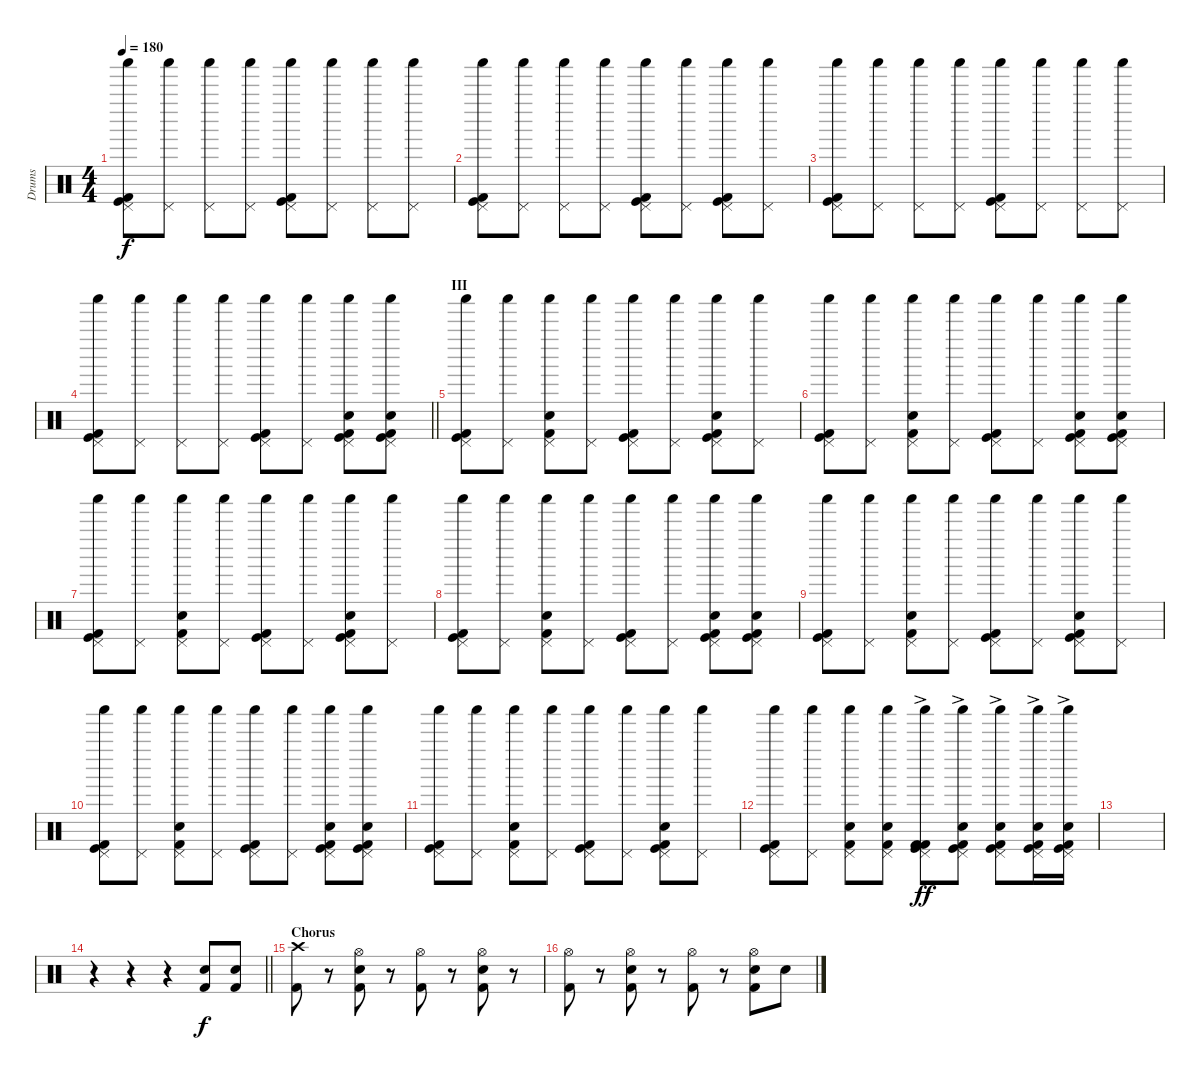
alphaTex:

\track ("Drums" "Drums") {instrument percussion}
\staff {score}
\articulation defaults
\ts (4 4)
\tempo 180
\clef neutral
\ks c
("Shaker (hit)" "Pedal Hi-Hat (hit)" "Kick (hit) 2" "Kick (hit)").8{dy f volume 11} ("Shaker (hit)" "Pedal Hi-Hat (hit)").8 ("Shaker (hit)" "Pedal Hi-Hat (hit)").8 ("Shaker (hit)" "Pedal Hi-Hat (hit)").8 ("Shaker (hit)" "Pedal Hi-Hat (hit)" "Kick (hit) 2" "Kick (hit)").8 ("Shaker (hit)" "Pedal Hi-Hat (hit)").8 ("Shaker (hit)" "Pedal Hi-Hat (hit)").8 ("Shaker (hit)" "Pedal Hi-Hat (hit)").8 |
("Shaker (hit)" "Pedal Hi-Hat (hit)" "Kick (hit) 2" "Kick (hit)").8 ("Shaker (hit)" "Pedal Hi-Hat (hit)").8 ("Shaker (hit)" "Pedal Hi-Hat (hit)").8 ("Shaker (hit)" "Pedal Hi-Hat (hit)").8 ("Shaker (hit)" "Pedal Hi-Hat (hit)" "Kick (hit) 2" "Kick (hit)").8 ("Shaker (hit)" "Pedal Hi-Hat (hit)").8 ("Shaker (hit)" "Pedal Hi-Hat (hit)" "Kick (hit) 2" "Kick (hit)").8 ("Shaker (hit)" "Pedal Hi-Hat (hit)").8 |
("Shaker (hit)" "Pedal Hi-Hat (hit)" "Kick (hit) 2" "Kick (hit)").8{volume 11} ("Shaker (hit)" "Pedal Hi-Hat (hit)").8 ("Shaker (hit)" "Pedal Hi-Hat (hit)").8 ("Shaker (hit)" "Pedal Hi-Hat (hit)").8 ("Shaker (hit)" "Pedal Hi-Hat (hit)" "Kick (hit) 2" "Kick (hit)").8 ("Shaker (hit)" "Pedal Hi-Hat (hit)").8 ("Shaker (hit)" "Pedal Hi-Hat (hit)").8 ("Shaker (hit)" "Pedal Hi-Hat (hit)").8 |
\barLineRight lightlight
("Shaker (hit)" "Pedal Hi-Hat (hit)" "Kick (hit) 2" "Kick (hit)").8 ("Shaker (hit)" "Pedal Hi-Hat (hit)").8 ("Shaker (hit)" "Pedal Hi-Hat (hit)").8 ("Shaker (hit)" "Pedal Hi-Hat (hit)").8 ("Shaker (hit)" "Pedal Hi-Hat (hit)" "Kick (hit) 2" "Kick (hit)").8 ("Shaker (hit)" "Pedal Hi-Hat (hit)").8 ("Snare (hit) 2" "Shaker (hit)" "Pedal Hi-Hat (hit)" "Kick (hit) 2" "Kick (hit)").8 ("Snare (hit) 2" "Shaker (hit)" "Pedal Hi-Hat (hit)" "Kick (hit) 2" "Kick (hit)").8 |
\section ("" "III")
("Shaker (hit)" "Pedal Hi-Hat (hit)" "Kick (hit) 2" "Kick (hit)").8{volume 11} ("Shaker (hit)" "Pedal Hi-Hat (hit)").8 ("Kick (hit) 2" "Shaker (hit)" "Pedal Hi-Hat (hit)" "Snare (hit) 2").8 ("Shaker (hit)" "Pedal Hi-Hat (hit)").8 ("Shaker (hit)" "Pedal Hi-Hat (hit)" "Kick (hit) 2" "Kick (hit)").8 ("Shaker (hit)" "Pedal Hi-Hat (hit)").8 ("Kick (hit) 2" "Shaker (hit)" "Pedal Hi-Hat (hit)" "Kick (hit)" "Snare (hit) 2").8 ("Shaker (hit)" "Pedal Hi-Hat (hit)").8 |
("Shaker (hit)" "Pedal Hi-Hat (hit)" "Kick (hit) 2" "Kick (hit)").8{volume 11} ("Shaker (hit)" "Pedal Hi-Hat (hit)").8 ("Kick (hit) 2" "Shaker (hit)" "Pedal Hi-Hat (hit)" "Snare (hit) 2").8 ("Shaker (hit)" "Pedal Hi-Hat (hit)").8 ("Shaker (hit)" "Pedal Hi-Hat (hit)" "Kick (hit) 2" "Kick (hit)").8 ("Shaker (hit)" "Pedal Hi-Hat (hit)").8 ("Kick (hit) 2" "Shaker (hit)" "Pedal Hi-Hat (hit)" "Kick (hit)" "Snare (hit) 2").8 ("Kick (hit) 2" "Shaker (hit)" "Pedal Hi-Hat (hit)" "Kick (hit)" "Snare (hit) 2").8 |
("Shaker (hit)" "Pedal Hi-Hat (hit)" "Kick (hit) 2" "Kick (hit)").8{volume 11} ("Shaker (hit)" "Pedal Hi-Hat (hit)").8 ("Kick (hit) 2" "Shaker (hit)" "Pedal Hi-Hat (hit)" "Snare (hit) 2").8 ("Shaker (hit)" "Pedal Hi-Hat (hit)").8 ("Shaker (hit)" "Pedal Hi-Hat (hit)" "Kick (hit) 2" "Kick (hit)").8 ("Shaker (hit)" "Pedal Hi-Hat (hit)").8 ("Kick (hit) 2" "Shaker (hit)" "Pedal Hi-Hat (hit)" "Kick (hit)" "Snare (hit) 2").8 ("Shaker (hit)" "Pedal Hi-Hat (hit)").8 |
("Shaker (hit)" "Pedal Hi-Hat (hit)" "Kick (hit) 2" "Kick (hit)").8{volume 11} ("Shaker (hit)" "Pedal Hi-Hat (hit)").8 ("Kick (hit) 2" "Shaker (hit)" "Pedal Hi-Hat (hit)" "Snare (hit) 2").8 ("Shaker (hit)" "Pedal Hi-Hat (hit)").8 ("Shaker (hit)" "Pedal Hi-Hat (hit)" "Kick (hit) 2" "Kick (hit)").8 ("Shaker (hit)" "Pedal Hi-Hat (hit)").8 ("Kick (hit) 2" "Shaker (hit)" "Pedal Hi-Hat (hit)" "Kick (hit)" "Snare (hit) 2").8 ("Kick (hit) 2" "Shaker (hit)" "Pedal Hi-Hat (hit)" "Kick (hit)" "Snare (hit) 2").8 |
("Shaker (hit)" "Pedal Hi-Hat (hit)" "Kick (hit) 2" "Kick (hit)").8{volume 11} ("Shaker (hit)" "Pedal Hi-Hat (hit)").8 ("Kick (hit) 2" "Shaker (hit)" "Pedal Hi-Hat (hit)" "Snare (hit) 2").8 ("Shaker (hit)" "Pedal Hi-Hat (hit)").8 ("Shaker (hit)" "Pedal Hi-Hat (hit)" "Kick (hit) 2" "Kick (hit)").8 ("Shaker (hit)" "Pedal Hi-Hat (hit)").8 ("Kick (hit) 2" "Shaker (hit)" "Pedal Hi-Hat (hit)" "Kick (hit)" "Snare (hit) 2").8 ("Shaker (hit)" "Pedal Hi-Hat (hit)").8 |
("Shaker (hit)" "Pedal Hi-Hat (hit)" "Kick (hit) 2" "Kick (hit)").8{volume 11} ("Shaker (hit)" "Pedal Hi-Hat (hit)").8 ("Kick (hit) 2" "Shaker (hit)" "Pedal Hi-Hat (hit)" "Snare (hit) 2").8 ("Shaker (hit)" "Pedal Hi-Hat (hit)").8 ("Shaker (hit)" "Pedal Hi-Hat (hit)" "Kick (hit) 2" "Kick (hit)").8 ("Shaker (hit)" "Pedal Hi-Hat (hit)").8 ("Kick (hit) 2" "Shaker (hit)" "Pedal Hi-Hat (hit)" "Kick (hit)" "Snare (hit) 2").8 ("Kick (hit) 2" "Shaker (hit)" "Pedal Hi-Hat (hit)" "Kick (hit)" "Snare (hit) 2").8 |
("Shaker (hit)" "Pedal Hi-Hat (hit)" "Kick (hit) 2" "Kick (hit)").8{volume 11} ("Shaker (hit)" "Pedal Hi-Hat (hit)").8 ("Kick (hit) 2" "Shaker (hit)" "Pedal Hi-Hat (hit)" "Snare (hit) 2").8 ("Shaker (hit)" "Pedal Hi-Hat (hit)").8 ("Shaker (hit)" "Pedal Hi-Hat (hit)" "Kick (hit) 2" "Kick (hit)").8 ("Shaker (hit)" "Pedal Hi-Hat (hit)").8 ("Kick (hit) 2" "Shaker (hit)" "Pedal Hi-Hat (hit)" "Kick (hit)" "Snare (hit) 2").8 ("Shaker (hit)" "Pedal Hi-Hat (hit)").8 |
("Shaker (hit)" "Pedal Hi-Hat (hit)" "Kick (hit) 2" "Kick (hit)").8{volume 11} ("Shaker (hit)" "Pedal Hi-Hat (hit)").8 ("Kick (hit) 2" "Shaker (hit)" "Pedal Hi-Hat (hit)" "Snare (hit) 2").8 ("Kick (hit) 2" "Shaker (hit)" "Pedal Hi-Hat (hit)" "Snare (hit) 2").8 ("Kick (hit) 2"{ac} "Shaker (hit)"{ac} "Pedal Hi-Hat (hit)"{ac} "Kick (hit) 2"{ac} "Kick (hit)"{ac}).8{dy ff} ("Kick (hit) 2"{ac} "Shaker (hit)"{ac} "Pedal Hi-Hat (hit)"{ac} "Kick (hit)"{ac} "Snare (hit) 2"{ac}).8 ("Kick (hit) 2"{ac} "Shaker (hit)"{ac} "Pedal Hi-Hat (hit)"{ac} "Kick (hit)"{ac} "Snare (hit) 2"{ac}).8 ("Kick (hit) 2"{ac} "Shaker (hit)"{ac} "Pedal Hi-Hat (hit)"{ac} "Kick (hit)"{ac} "Snare (hit) 2"{ac}).16 ("Kick (hit) 2"{ac} "Shaker (hit)"{ac} "Pedal Hi-Hat (hit)"{ac} "Kick (hit)"{ac} "Snare (hit) 2"{ac}).16 |
|
\barLineRight lightlight
r.4 r.4 r.4 ("Snare (hit) 2" "Kick (hit) 2").8{dy f} ("Snare (hit) 2" "Kick (hit) 2").8 |
\section ("" "Chorus")
("Kick (hit) 2" "Crash high (hit)").8 r.8 ("Hi-Hat (open)" "Kick (hit) 2" "Snare (hit) 2").8 r.8 ("Hi-Hat (open)" "Kick (hit) 2").8 r.8 ("Hi-Hat (open)" "Kick (hit) 2" "Snare (hit) 2").8 r.8 |
("Kick (hit) 2" "Hi-Hat (open)").8 r.8 ("Hi-Hat (open)" "Kick (hit) 2" "Snare (hit) 2").8 r.8 ("Hi-Hat (open)" "Kick (hit) 2").8 r.8 ("Hi-Hat (open)" "Kick (hit) 2" "Snare (hit) 2").8 "Snare (hit) 2".8
